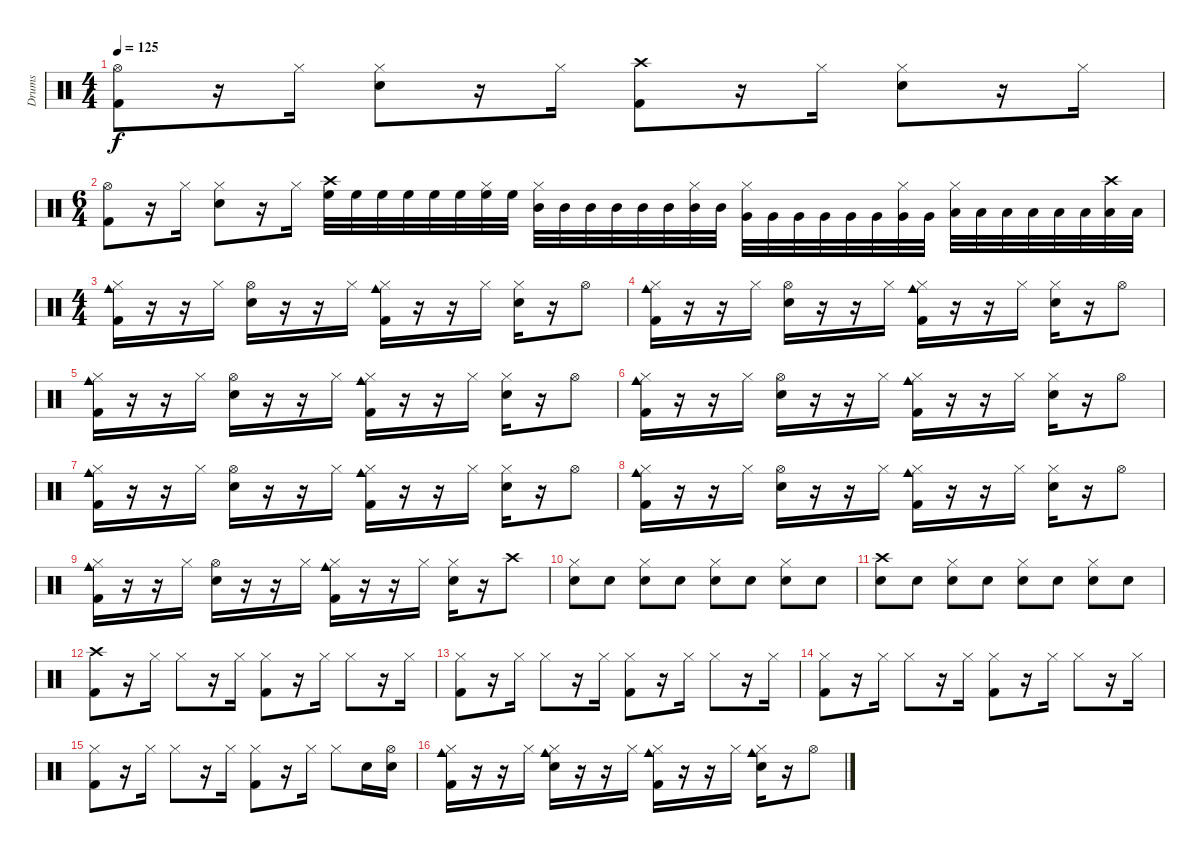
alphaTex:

\track ("Drums" "Drums") {instrument percussion}
\staff {score}
\articulation defaults
\ts (4 4)
\tempo 125
\clef neutral
\ks c
("Hi-Hat (open)" "Kick (hit) 2").8{dy f} r.16 "Hi-Hat (closed)".16 ("Hi-Hat (closed)" "Electric Snare (hit)").8 r.16 "Hi-Hat (closed)".16 ("Crash high (hit)" "Kick (hit) 2").8 r.16 "Hi-Hat (closed)".16 ("Hi-Hat (closed)" "Electric Snare (hit)").8 r.16 "Hi-Hat (closed)".16 |
\ts (6 4)
("Hi-Hat (open)" "Kick (hit) 2").8 r.16 "Hi-Hat (closed)".16 ("Hi-Hat (closed)" "Electric Snare (hit)").8 r.16 "Hi-Hat (closed)".16 ("Crash high (hit)" "High Floor Tom (hit)").32 "High Floor Tom (hit)".32 "High Floor Tom (hit)".32 "High Floor Tom (hit)".32 "High Floor Tom (hit)".32 "High Floor Tom (hit)".32 ("Hi-Hat (closed)" "High Floor Tom (hit)").32 "High Floor Tom (hit)".32 ("Hi-Hat (closed)" "Mid Tom (hit)").32 "Mid Tom (hit)".32 "Mid Tom (hit)".32 "Mid Tom (hit)".32 "Mid Tom (hit)".32 "Mid Tom (hit)".32 ("Hi-Hat (closed)" "Mid Tom (hit)").32 "Mid Tom (hit)".32 ("Hi-Hat (closed)" "Very Low Tom (hit)").32 "Very Low Tom (hit)".32 "Very Low Tom (hit)".32 "Very Low Tom (hit)".32 "Very Low Tom (hit)".32 "Very Low Tom (hit)".32 ("Hi-Hat (closed)" "Very Low Tom (hit)").32 "Very Low Tom (hit)".32 ("Hi-Hat (closed)" "Low Floor Tom (hit)").32 "Low Floor Tom (hit)".32 "Low Floor Tom (hit)".32 "Low Floor Tom (hit)".32 "Low Floor Tom (hit)".32 "Low Floor Tom (hit)".32 ("Crash high (hit)" "Low Floor Tom (hit)").32 "Low Floor Tom (hit)".32 |
\ts (4 4)
("Cowbell medium (hit)" "Hi-Hat (closed)" "Kick (hit) 2").16 r.16 r.16 "Hi-Hat (closed)".16 ("Hi-Hat (open)" "Electric Snare (hit)").16 r.16 r.16 "Hi-Hat (closed)".16 ("Cowbell medium (hit)" "Hi-Hat (closed)" "Kick (hit) 2").16 r.16 r.16 "Hi-Hat (closed)".16 ("Hi-Hat (closed)" "Electric Snare (hit)").16 r.16 "Hi-Hat (open)".8 |
("Cowbell medium (hit)" "Hi-Hat (closed)" "Kick (hit) 2").16 r.16 r.16 "Hi-Hat (closed)".16 ("Hi-Hat (open)" "Electric Snare (hit)").16 r.16 r.16 "Hi-Hat (closed)".16 ("Cowbell medium (hit)" "Hi-Hat (closed)" "Kick (hit) 2").16 r.16 r.16 "Hi-Hat (closed)".16 ("Hi-Hat (closed)" "Electric Snare (hit)").16 r.16 "Hi-Hat (open)".8 |
("Cowbell medium (hit)" "Hi-Hat (closed)" "Kick (hit) 2").16 r.16 r.16 "Hi-Hat (closed)".16 ("Hi-Hat (open)" "Electric Snare (hit)").16 r.16 r.16 "Hi-Hat (closed)".16 ("Cowbell medium (hit)" "Hi-Hat (closed)" "Kick (hit) 2").16 r.16 r.16 "Hi-Hat (closed)".16 ("Hi-Hat (closed)" "Electric Snare (hit)").16 r.16 "Hi-Hat (open)".8 |
("Cowbell medium (hit)" "Hi-Hat (closed)" "Kick (hit) 2").16 r.16 r.16 "Hi-Hat (closed)".16 ("Hi-Hat (open)" "Electric Snare (hit)").16 r.16 r.16 "Hi-Hat (closed)".16 ("Cowbell medium (hit)" "Hi-Hat (closed)" "Kick (hit) 2").16 r.16 r.16 "Hi-Hat (closed)".16 ("Hi-Hat (closed)" "Electric Snare (hit)").16 r.16 "Hi-Hat (open)".8 |
("Cowbell medium (hit)" "Hi-Hat (closed)" "Kick (hit) 2").16 r.16 r.16 "Hi-Hat (closed)".16 ("Hi-Hat (open)" "Electric Snare (hit)").16 r.16 r.16 "Hi-Hat (closed)".16 ("Cowbell medium (hit)" "Hi-Hat (closed)" "Kick (hit) 2").16 r.16 r.16 "Hi-Hat (closed)".16 ("Hi-Hat (closed)" "Electric Snare (hit)").16 r.16 "Hi-Hat (open)".8 |
("Cowbell medium (hit)" "Hi-Hat (closed)" "Kick (hit) 2").16 r.16 r.16 "Hi-Hat (closed)".16 ("Hi-Hat (open)" "Electric Snare (hit)").16 r.16 r.16 "Hi-Hat (closed)".16 ("Cowbell medium (hit)" "Hi-Hat (closed)" "Kick (hit) 2").16 r.16 r.16 "Hi-Hat (closed)".16 ("Hi-Hat (closed)" "Electric Snare (hit)").16 r.16 "Hi-Hat (open)".8 |
("Cowbell medium (hit)" "Hi-Hat (closed)" "Kick (hit) 2").16 r.16 r.16 "Hi-Hat (closed)".16 ("Hi-Hat (open)" "Electric Snare (hit)").16 r.16 r.16 "Hi-Hat (closed)".16 ("Cowbell medium (hit)" "Hi-Hat (closed)" "Kick (hit) 2").16 r.16 r.16 "Hi-Hat (closed)".16 ("Hi-Hat (closed)" "Electric Snare (hit)").16 r.16 "Crash high (hit)".8 |
("Hi-Hat (closed)" "Electric Snare (hit)").8 "Electric Snare (hit)".8 ("Hi-Hat (closed)" "Electric Snare (hit)").8 "Electric Snare (hit)".8 ("Hi-Hat (closed)" "Electric Snare (hit)").8 "Electric Snare (hit)".8 ("Hi-Hat (closed)" "Electric Snare (hit)").8 "Electric Snare (hit)".8 |
("Crash high (hit)" "Electric Snare (hit)").8 "Electric Snare (hit)".8 ("Hi-Hat (closed)" "Electric Snare (hit)").8 "Electric Snare (hit)".8 ("Hi-Hat (closed)" "Electric Snare (hit)").8 "Electric Snare (hit)".8 ("Hi-Hat (closed)" "Electric Snare (hit)").8 "Electric Snare (hit)".8 |
("Crash high (hit)" "Kick (hit) 2").8 r.16 "Hi-Hat (closed)".16 "Hi-Hat (closed)".8 r.16 "Hi-Hat (closed)".16 ("Hi-Hat (closed)" "Kick (hit) 2").8 r.16 "Hi-Hat (closed)".16 "Hi-Hat (closed)".8 r.16 "Hi-Hat (closed)".16 |
("Hi-Hat (closed)" "Kick (hit) 2").8 r.16 "Hi-Hat (closed)".16 "Hi-Hat (closed)".8 r.16 "Hi-Hat (closed)".16 ("Hi-Hat (closed)" "Kick (hit) 2").8 r.16 "Hi-Hat (closed)".16 "Hi-Hat (closed)".8 r.16 "Hi-Hat (closed)".16 |
("Hi-Hat (closed)" "Kick (hit) 2").8 r.16 "Hi-Hat (closed)".16 "Hi-Hat (closed)".8 r.16 "Hi-Hat (closed)".16 ("Hi-Hat (closed)" "Kick (hit) 2").8 r.16 "Hi-Hat (closed)".16 "Hi-Hat (closed)".8 r.16 "Hi-Hat (closed)".16 |
("Hi-Hat (closed)" "Kick (hit) 2").8 r.16 "Hi-Hat (closed)".16 "Hi-Hat (closed)".8 r.16 "Hi-Hat (closed)".16 ("Hi-Hat (closed)" "Kick (hit) 2").8 r.16 "Hi-Hat (closed)".16 "Hi-Hat (closed)".8 "Electric Snare (hit)".16 ("Hi-Hat (open)" "Electric Snare (hit)").16 |
("Cowbell medium (hit)" "Hi-Hat (closed)" "Kick (hit) 2").16 r.16 r.16 "Hi-Hat (closed)".16 ("Cowbell medium (hit)" "Hi-Hat (closed)" "Electric Snare (hit)").16 r.16 r.16 "Hi-Hat (closed)".16 ("Cowbell medium (hit)" "Hi-Hat (closed)" "Kick (hit) 2").16 r.16 r.16 "Hi-Hat (closed)".16 ("Cowbell medium (hit)" "Hi-Hat (closed)" "Electric Snare (hit)").16 r.16 "Hi-Hat (open)".8
